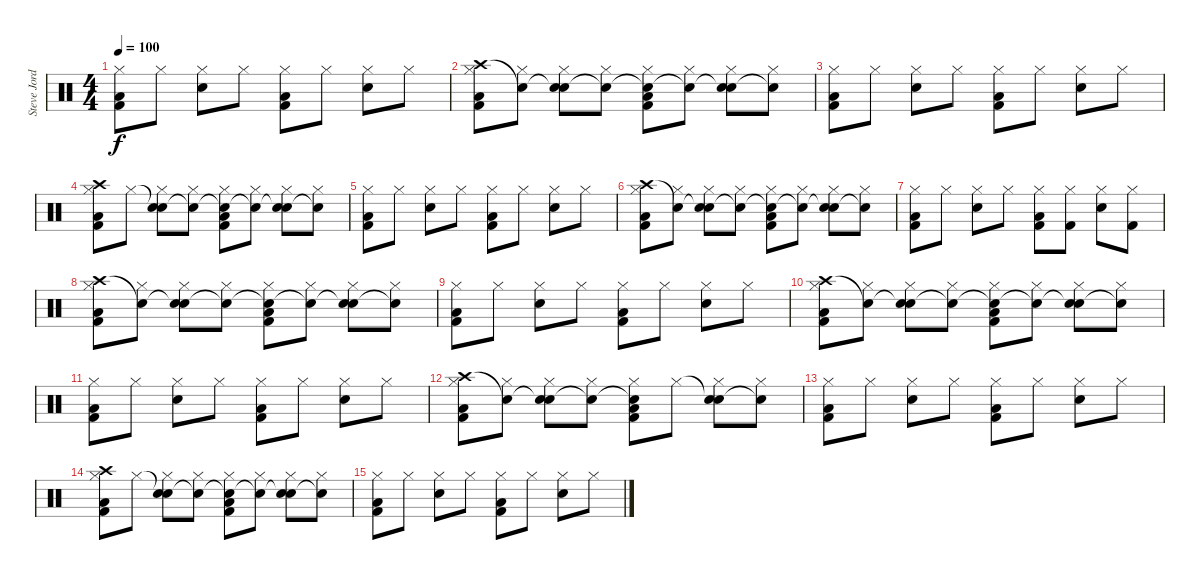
\track ("Steve Jordan" "Steve Jord") {instrument percussion}
\staff {score}
\articulation defaults
\ts (4 4)
\tempo 100
\clef neutral
\ks c
("Hi-Hat (closed)" "Low Floor Tom (hit)" "Kick (hit) 2").8{dy f} "Hi-Hat (closed)".8 ("Hi-Hat (closed)" "Snare (hit) 2").8 "Hi-Hat (closed)".8 ("Hi-Hat (closed)" "Low Floor Tom (hit)" "Kick (hit) 2").8 "Hi-Hat (closed)".8 ("Hi-Hat (closed)" "Snare (hit) 2").8 "Hi-Hat (closed)".8 |
("Crash high (hit)" "Hi-Hat (closed)" "Low Floor Tom (hit)" "Kick (hit) 2").8 ("Snare (hit)"{t} "Hi-Hat (closed)").8 ("Snare (hit)"{t} "Hi-Hat (closed)" "Snare (hit) 2").8 ("Snare (hit)"{t} "Hi-Hat (closed)").8 ("Snare (hit)"{t} "Hi-Hat (closed)" "Low Floor Tom (hit)" "Kick (hit) 2").8 ("Snare (hit)"{t} "Hi-Hat (closed)").8 ("Snare (hit)"{t} "Hi-Hat (closed)" "Snare (hit) 2").8 ("Snare (hit)"{t} "Hi-Hat (closed)").8 |
("Hi-Hat (closed)" "Low Floor Tom (hit)" "Kick (hit) 2").8 "Hi-Hat (closed)".8 ("Hi-Hat (closed)" "Snare (hit) 2").8 "Hi-Hat (closed)".8 ("Hi-Hat (closed)" "Low Floor Tom (hit)" "Kick (hit) 2").8 "Hi-Hat (closed)".8 ("Hi-Hat (closed)" "Snare (hit) 2").8 "Hi-Hat (closed)".8 |
("Crash high (hit)" "Hi-Hat (closed)" "Low Floor Tom (hit)" "Kick (hit) 2").8 "Hi-Hat (closed)".8 ("Snare (hit)"{t} "Hi-Hat (closed)" "Snare (hit) 2").8 ("Snare (hit)"{t} "Hi-Hat (closed)").8 ("Snare (hit)"{t} "Hi-Hat (closed)" "Low Floor Tom (hit)" "Kick (hit) 2").8 ("Snare (hit)"{t} "Hi-Hat (closed)").8 ("Snare (hit)"{t} "Hi-Hat (closed)" "Snare (hit) 2").8 ("Snare (hit)"{t} "Hi-Hat (closed)").8 |
("Hi-Hat (closed)" "Low Floor Tom (hit)" "Kick (hit) 2").8 "Hi-Hat (closed)".8 ("Hi-Hat (closed)" "Snare (hit) 2").8 "Hi-Hat (closed)".8 ("Hi-Hat (closed)" "Low Floor Tom (hit)" "Kick (hit) 2").8 "Hi-Hat (closed)".8 ("Hi-Hat (closed)" "Snare (hit) 2").8 "Hi-Hat (closed)".8 |
("Crash high (hit)" "Hi-Hat (closed)" "Low Floor Tom (hit)" "Kick (hit) 2").8 ("Snare (hit)"{t} "Hi-Hat (closed)").8 ("Snare (hit)"{t} "Hi-Hat (closed)" "Snare (hit) 2").8 ("Snare (hit)"{t} "Hi-Hat (closed)").8 ("Snare (hit)"{t} "Hi-Hat (closed)" "Low Floor Tom (hit)" "Kick (hit) 2").8 ("Snare (hit)"{t} "Hi-Hat (closed)").8 ("Snare (hit)"{t} "Hi-Hat (closed)" "Snare (hit) 2").8 ("Snare (hit)"{t} "Hi-Hat (closed)").8 |
("Hi-Hat (closed)" "Low Floor Tom (hit)" "Kick (hit) 2").8 "Hi-Hat (closed)".8 ("Hi-Hat (closed)" "Snare (hit) 2").8 "Hi-Hat (closed)".8 ("Hi-Hat (closed)" "Low Floor Tom (hit)" "Kick (hit) 2").8 ("Hi-Hat (closed)" "Kick (hit) 2").8 ("Hi-Hat (closed)" "Snare (hit) 2").8 ("Hi-Hat (closed)" "Kick (hit) 2").8 |
("Crash high (hit)" "Hi-Hat (closed)" "Low Floor Tom (hit)" "Kick (hit) 2").8 ("Snare (hit)"{t} "Hi-Hat (closed)").8 ("Snare (hit)"{t} "Hi-Hat (closed)" "Snare (hit) 2").8 ("Snare (hit)"{t} "Hi-Hat (closed)").8 ("Snare (hit)"{t} "Hi-Hat (closed)" "Low Floor Tom (hit)" "Kick (hit) 2").8 ("Snare (hit)"{t} "Hi-Hat (closed)").8 ("Snare (hit)"{t} "Hi-Hat (closed)" "Snare (hit) 2").8 ("Snare (hit)"{t} "Hi-Hat (closed)").8 |
("Hi-Hat (closed)" "Low Floor Tom (hit)" "Kick (hit) 2").8 "Hi-Hat (closed)".8 ("Hi-Hat (closed)" "Snare (hit) 2").8 "Hi-Hat (closed)".8 ("Hi-Hat (closed)" "Low Floor Tom (hit)" "Kick (hit) 2").8 "Hi-Hat (closed)".8 ("Hi-Hat (closed)" "Snare (hit) 2").8 "Hi-Hat (closed)".8 |
("Crash high (hit)" "Hi-Hat (closed)" "Low Floor Tom (hit)" "Kick (hit) 2").8 ("Snare (hit)"{t} "Hi-Hat (closed)").8 ("Snare (hit)"{t} "Hi-Hat (closed)" "Snare (hit) 2").8 ("Snare (hit)"{t} "Hi-Hat (closed)").8 ("Snare (hit)"{t} "Hi-Hat (closed)" "Low Floor Tom (hit)" "Kick (hit) 2").8 ("Snare (hit)"{t} "Hi-Hat (closed)").8 ("Snare (hit)"{t} "Hi-Hat (closed)" "Snare (hit) 2").8 ("Snare (hit)"{t} "Hi-Hat (closed)").8 |
("Hi-Hat (closed)" "Low Floor Tom (hit)" "Kick (hit) 2").8 "Hi-Hat (closed)".8 ("Hi-Hat (closed)" "Snare (hit) 2").8 "Hi-Hat (closed)".8 ("Hi-Hat (closed)" "Low Floor Tom (hit)" "Kick (hit) 2").8 "Hi-Hat (closed)".8 ("Hi-Hat (closed)" "Snare (hit) 2").8 "Hi-Hat (closed)".8 |
("Crash high (hit)" "Hi-Hat (closed)" "Low Floor Tom (hit)" "Kick (hit) 2").8 ("Snare (hit)"{t} "Hi-Hat (closed)").8 ("Snare (hit)"{t} "Hi-Hat (closed)" "Snare (hit) 2").8 ("Snare (hit)"{t} "Hi-Hat (closed)").8 ("Snare (hit)"{t} "Hi-Hat (closed)" "Low Floor Tom (hit)" "Kick (hit) 2").8 "Hi-Hat (closed)".8 ("Snare (hit)"{t} "Hi-Hat (closed)" "Snare (hit) 2").8 ("Snare (hit)"{t} "Hi-Hat (closed)").8 |
("Hi-Hat (closed)" "Low Floor Tom (hit)" "Kick (hit) 2").8 "Hi-Hat (closed)".8 ("Hi-Hat (closed)" "Snare (hit) 2").8 "Hi-Hat (closed)".8 ("Hi-Hat (closed)" "Low Floor Tom (hit)" "Kick (hit) 2").8 "Hi-Hat (closed)".8 ("Hi-Hat (closed)" "Snare (hit) 2").8 "Hi-Hat (closed)".8 |
("Crash high (hit)" "Hi-Hat (closed)" "Low Floor Tom (hit)" "Kick (hit) 2").8 "Hi-Hat (closed)".8 ("Snare (hit)"{t} "Hi-Hat (closed)" "Snare (hit) 2").8 ("Snare (hit)"{t} "Hi-Hat (closed)").8 ("Snare (hit)"{t} "Hi-Hat (closed)" "Low Floor Tom (hit)" "Kick (hit) 2").8 ("Snare (hit)"{t} "Hi-Hat (closed)").8 ("Snare (hit)"{t} "Hi-Hat (closed)" "Snare (hit) 2").8 ("Snare (hit)"{t} "Hi-Hat (closed)").8 |
("Hi-Hat (closed)" "Low Floor Tom (hit)" "Kick (hit) 2").8 "Hi-Hat (closed)".8 ("Hi-Hat (closed)" "Snare (hit) 2").8 "Hi-Hat (closed)".8 ("Hi-Hat (closed)" "Low Floor Tom (hit)" "Kick (hit) 2").8 "Hi-Hat (closed)".8 ("Hi-Hat (closed)" "Snare (hit) 2").8 "Hi-Hat (closed)".8
